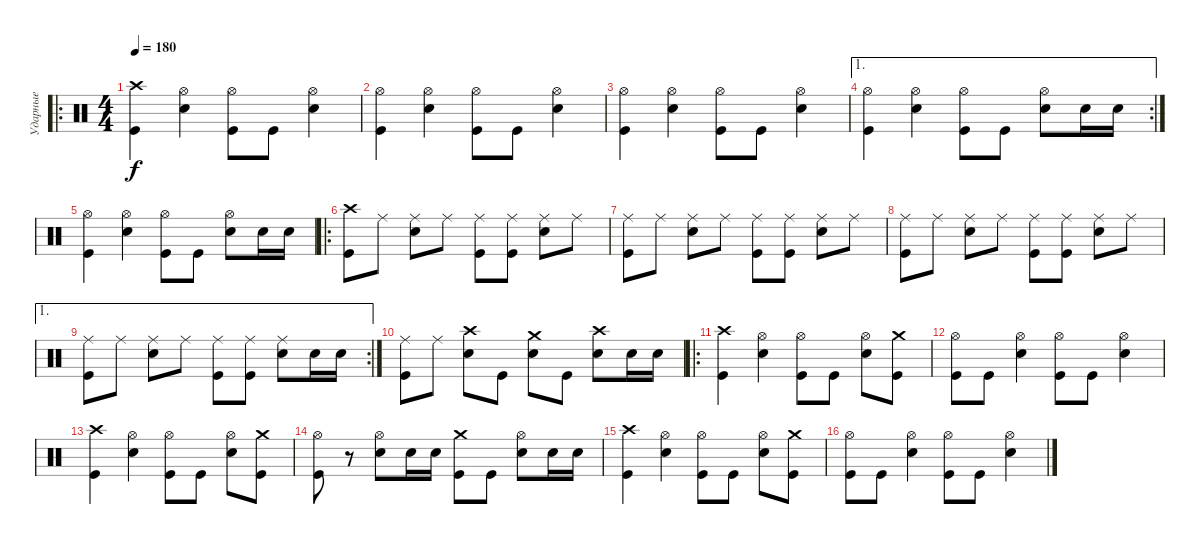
\track ("Ударные" "Ударные") {instrument percussion}
\staff {score}
\articulation defaults
\ro
\ts (4 4)
\tempo 180
\clef neutral
\ks c
("Crash high (hit)" "Kick (hit)").4{dy f} ("Hi-Hat (open)" "Electric Snare (hit)").4 ("Hi-Hat (open)" "Kick (hit)").8 "Kick (hit)".8 ("Hi-Hat (open)" "Electric Snare (hit)").4 |
("Hi-Hat (open)" "Kick (hit)").4 ("Hi-Hat (open)" "Electric Snare (hit)").4 ("Hi-Hat (open)" "Kick (hit)").8 "Kick (hit)".8 ("Hi-Hat (open)" "Electric Snare (hit)").4 |
("Hi-Hat (open)" "Kick (hit)").4 ("Hi-Hat (open)" "Electric Snare (hit)").4 ("Hi-Hat (open)" "Kick (hit)").8 "Kick (hit)".8 ("Hi-Hat (open)" "Electric Snare (hit)").4 |
\ae 1
\rc 2
("Hi-Hat (open)" "Kick (hit)").4 ("Hi-Hat (open)" "Electric Snare (hit)").4 ("Hi-Hat (open)" "Kick (hit)").8 "Kick (hit)".8 ("Hi-Hat (open)" "Electric Snare (hit)").8 "Electric Snare (hit)".16 "Electric Snare (hit)".16 |
("Hi-Hat (open)" "Kick (hit)").4 ("Hi-Hat (open)" "Electric Snare (hit)").4 ("Hi-Hat (open)" "Kick (hit)").8 "Kick (hit)".8 ("Hi-Hat (open)" "Electric Snare (hit)").8 "Electric Snare (hit)".16 "Electric Snare (hit)".16 |
\ro
("Crash high (hit)" "Kick (hit)").8 "Ride (middle)".8 ("Ride (middle)" "Electric Snare (hit)").8 "Ride (middle)".8 ("Ride (middle)" "Kick (hit)").8 ("Ride (middle)" "Kick (hit)").8 ("Ride (middle)" "Electric Snare (hit)").8 "Ride (middle)".8 |
("Ride (middle)" "Kick (hit)").8 "Ride (middle)".8 ("Ride (middle)" "Electric Snare (hit)").8 "Ride (middle)".8 ("Ride (middle)" "Kick (hit)").8 ("Ride (middle)" "Kick (hit)").8 ("Ride (middle)" "Electric Snare (hit)").8 "Ride (middle)".8 |
("Ride (middle)" "Kick (hit)").8 "Ride (middle)".8 ("Ride (middle)" "Electric Snare (hit)").8 "Ride (middle)".8 ("Ride (middle)" "Kick (hit)").8 ("Ride (middle)" "Kick (hit)").8 ("Ride (middle)" "Electric Snare (hit)").8 "Ride (middle)".8 |
\ae 1
\rc 2
("Ride (middle)" "Kick (hit)").8 "Ride (middle)".8 ("Ride (middle)" "Electric Snare (hit)").8 "Ride (middle)".8 ("Ride (middle)" "Kick (hit)").8 ("Ride (middle)" "Kick (hit)").8 ("Ride (middle)" "Electric Snare (hit)").8 "Electric Snare (hit)".16 "Electric Snare (hit)".16 |
("Ride (middle)" "Kick (hit)").8 "Ride (middle)".8 ("Crash high (hit)" "Electric Snare (hit)").8 "Kick (hit)".8 ("Crash medium (hit)" "Electric Snare (hit)").8 "Kick (hit)".8 ("Crash high (hit)" "Electric Snare (hit)").8 "Electric Snare (hit)".16 "Electric Snare (hit)".16 |
\ro
("Crash high (hit)" "Kick (hit)").4 ("Hi-Hat (open)" "Electric Snare (hit)").4 ("Hi-Hat (open)" "Kick (hit)").8 "Kick (hit)".8 ("Hi-Hat (open)" "Electric Snare (hit)").8 ("Crash medium (hit)" "Kick (hit)").8 |
("Hi-Hat (open)" "Kick (hit)").8 "Kick (hit)".8 ("Hi-Hat (open)" "Electric Snare (hit)").4 ("Hi-Hat (open)" "Kick (hit)").8 "Kick (hit)".8 ("Hi-Hat (open)" "Electric Snare (hit)").4 |
("Crash high (hit)" "Kick (hit)").4 ("Hi-Hat (open)" "Electric Snare (hit)").4 ("Hi-Hat (open)" "Kick (hit)").8 "Kick (hit)".8 ("Hi-Hat (open)" "Electric Snare (hit)").8 ("Crash medium (hit)" "Kick (hit)").8 |
("Hi-Hat (open)" "Kick (hit)").8 r.8 ("Hi-Hat (open)" "Electric Snare (hit)").8 "Electric Snare (hit)".16 "Electric Snare (hit)".16 ("Crash medium (hit)" "Kick (hit)").8 "Kick (hit)".8 ("Hi-Hat (open)" "Electric Snare (hit)").8 "Electric Snare (hit)".16 "Electric Snare (hit)".16 |
("Crash high (hit)" "Kick (hit)").4 ("Hi-Hat (open)" "Electric Snare (hit)").4 ("Hi-Hat (open)" "Kick (hit)").8 "Kick (hit)".8 ("Hi-Hat (open)" "Electric Snare (hit)").8 ("Crash medium (hit)" "Kick (hit)").8 |
("Hi-Hat (open)" "Kick (hit)").8 "Kick (hit)".8 ("Hi-Hat (open)" "Electric Snare (hit)").4 ("Hi-Hat (open)" "Kick (hit)").8 "Kick (hit)".8 ("Hi-Hat (open)" "Electric Snare (hit)").4
